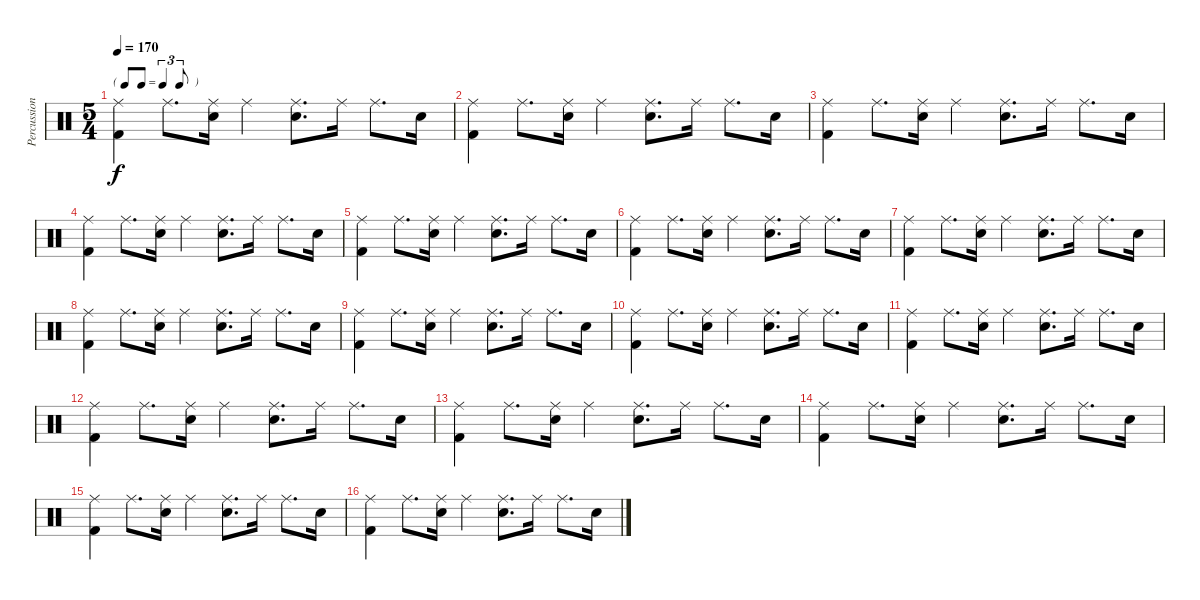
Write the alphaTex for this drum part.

\track ("Percussion" "Percussion") {instrument percussion}
\staff {score}
\articulation defaults
\ts (5 4)
\tf triplet8th
\tempo 170
\clef neutral
\ks c
("Ride (middle)" "Kick (hit) 2").4{dy f} "Ride (middle)".8{d} ("Ride (middle)" "Electric Snare (hit)").16 "Ride (middle)".4 ("Ride (middle)" "Electric Snare (hit)").8{d} "Ride (middle)".16 "Ride (middle)".8{d} "Electric Snare (hit)".16 |
("Ride (middle)" "Kick (hit) 2").4 "Ride (middle)".8{d} ("Ride (middle)" "Electric Snare (hit)").16 "Ride (middle)".4 ("Ride (middle)" "Electric Snare (hit)").8{d} "Ride (middle)".16 "Ride (middle)".8{d} "Electric Snare (hit)".16 |
("Ride (middle)" "Kick (hit) 2").4 "Ride (middle)".8{d} ("Ride (middle)" "Electric Snare (hit)").16 "Ride (middle)".4 ("Ride (middle)" "Electric Snare (hit)").8{d} "Ride (middle)".16 "Ride (middle)".8{d} "Electric Snare (hit)".16 |
("Ride (middle)" "Kick (hit) 2").4 "Ride (middle)".8{d} ("Ride (middle)" "Electric Snare (hit)").16 "Ride (middle)".4 ("Ride (middle)" "Electric Snare (hit)").8{d} "Ride (middle)".16 "Ride (middle)".8{d} "Electric Snare (hit)".16 |
("Ride (middle)" "Kick (hit) 2").4 "Ride (middle)".8{d} ("Ride (middle)" "Electric Snare (hit)").16 "Ride (middle)".4 ("Ride (middle)" "Electric Snare (hit)").8{d} "Ride (middle)".16 "Ride (middle)".8{d} "Electric Snare (hit)".16 |
("Ride (middle)" "Kick (hit) 2").4 "Ride (middle)".8{d} ("Ride (middle)" "Electric Snare (hit)").16 "Ride (middle)".4 ("Ride (middle)" "Electric Snare (hit)").8{d} "Ride (middle)".16 "Ride (middle)".8{d} "Electric Snare (hit)".16 |
("Ride (middle)" "Kick (hit) 2").4 "Ride (middle)".8{d} ("Ride (middle)" "Electric Snare (hit)").16 "Ride (middle)".4 ("Ride (middle)" "Electric Snare (hit)").8{d} "Ride (middle)".16 "Ride (middle)".8{d} "Electric Snare (hit)".16 |
("Ride (middle)" "Kick (hit) 2").4 "Ride (middle)".8{d} ("Ride (middle)" "Electric Snare (hit)").16 "Ride (middle)".4 ("Ride (middle)" "Electric Snare (hit)").8{d} "Ride (middle)".16 "Ride (middle)".8{d} "Electric Snare (hit)".16 |
("Ride (middle)" "Kick (hit) 2").4 "Ride (middle)".8{d} ("Ride (middle)" "Electric Snare (hit)").16 "Ride (middle)".4 ("Ride (middle)" "Electric Snare (hit)").8{d} "Ride (middle)".16 "Ride (middle)".8{d} "Electric Snare (hit)".16 |
("Ride (middle)" "Kick (hit) 2").4 "Ride (middle)".8{d} ("Ride (middle)" "Electric Snare (hit)").16 "Ride (middle)".4 ("Ride (middle)" "Electric Snare (hit)").8{d} "Ride (middle)".16 "Ride (middle)".8{d} "Electric Snare (hit)".16 |
("Ride (middle)" "Kick (hit) 2").4 "Ride (middle)".8{d} ("Ride (middle)" "Electric Snare (hit)").16 "Ride (middle)".4 ("Ride (middle)" "Electric Snare (hit)").8{d} "Ride (middle)".16 "Ride (middle)".8{d} "Electric Snare (hit)".16 |
("Ride (middle)" "Kick (hit) 2").4 "Ride (middle)".8{d} ("Ride (middle)" "Electric Snare (hit)").16 "Ride (middle)".4 ("Ride (middle)" "Electric Snare (hit)").8{d} "Ride (middle)".16 "Ride (middle)".8{d} "Electric Snare (hit)".16 |
("Ride (middle)" "Kick (hit) 2").4 "Ride (middle)".8{d} ("Ride (middle)" "Electric Snare (hit)").16 "Ride (middle)".4 ("Ride (middle)" "Electric Snare (hit)").8{d} "Ride (middle)".16 "Ride (middle)".8{d} "Electric Snare (hit)".16 |
("Ride (middle)" "Kick (hit) 2").4 "Ride (middle)".8{d} ("Ride (middle)" "Electric Snare (hit)").16 "Ride (middle)".4 ("Ride (middle)" "Electric Snare (hit)").8{d} "Ride (middle)".16 "Ride (middle)".8{d} "Electric Snare (hit)".16 |
("Ride (middle)" "Kick (hit) 2").4 "Ride (middle)".8{d} ("Ride (middle)" "Electric Snare (hit)").16 "Ride (middle)".4 ("Ride (middle)" "Electric Snare (hit)").8{d} "Ride (middle)".16 "Ride (middle)".8{d} "Electric Snare (hit)".16 |
("Ride (middle)" "Kick (hit) 2").4 "Ride (middle)".8{d} ("Ride (middle)" "Electric Snare (hit)").16 "Ride (middle)".4 ("Ride (middle)" "Electric Snare (hit)").8{d} "Ride (middle)".16 "Ride (middle)".8{d} "Electric Snare (hit)".16
